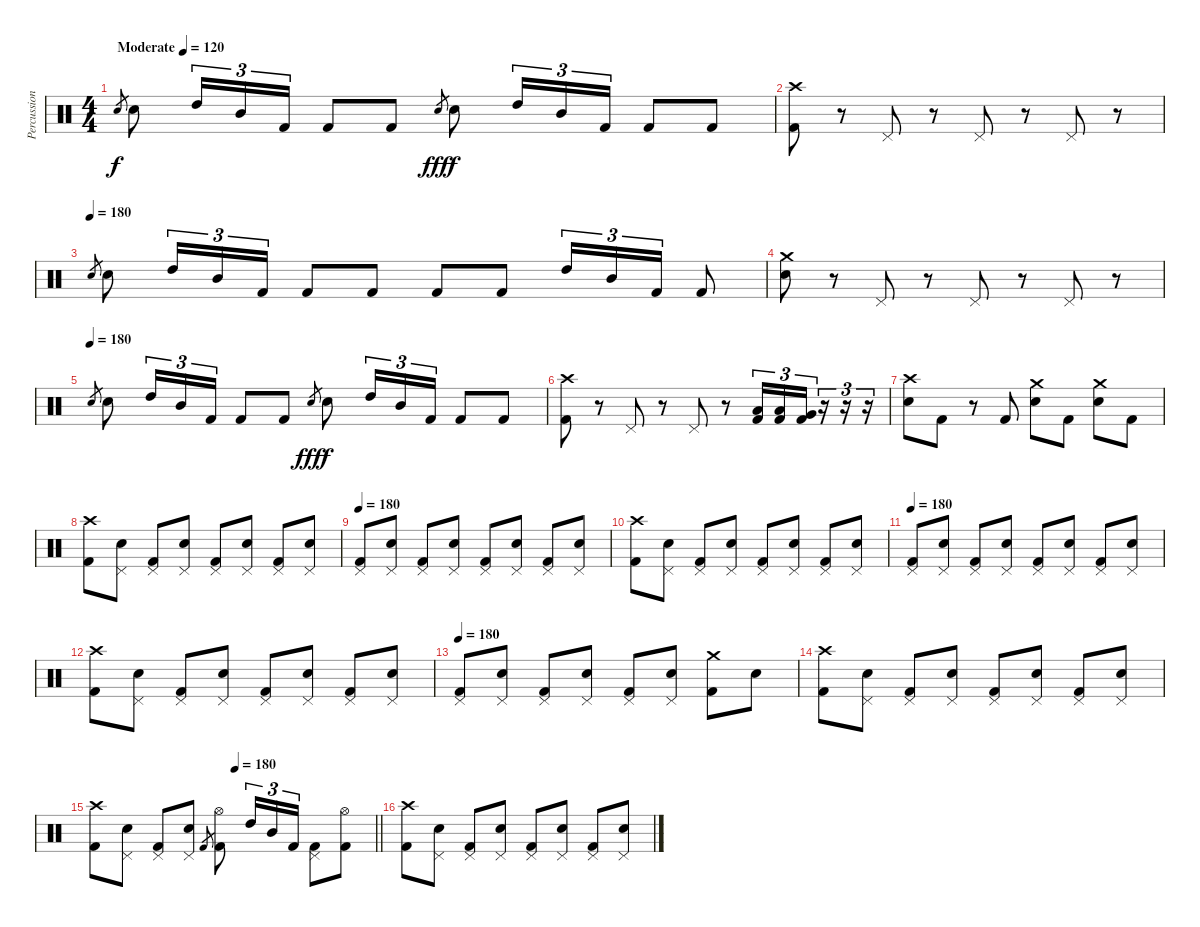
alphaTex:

\track ("Percussion" "Percussion") {instrument percussion}
\staff {score}
\articulation defaults
\ts (4 4)
\tempo (120 "Moderate")
\tempo 180
\tempo (120 "Moderate")
\clef neutral
\ks c "Snare (hit) 2".8{gr dy f} "Snare (hit) 2".8 "High Tom (hit)".16{tu (3 2)} "Mid Tom (hit)".16{tu (3 2)} "Kick (hit) 2".16{tu (3 2)} "Kick (hit) 2".8 "Kick (hit) 2".8 "Snare (hit) 2".8{gr dy fff} "Snare (hit) 2".8{dy f} "High Tom (hit)".16{tu (3 2)} "Mid Tom (hit)".16{tu (3 2)} "Kick (hit) 2".16{tu (3 2)} "Kick (hit) 2".8 "Kick (hit) 2".8
|
("Crash high (hit)" "Kick (hit) 2").8 r.8 "Pedal Hi-Hat (hit)".8 r.8 "Pedal Hi-Hat (hit)".8 r.8 "Pedal Hi-Hat (hit)".8 r.8 |
\tempo 120
\tempo (180)
"Snare (hit) 2".8{gr} "Snare (hit) 2".8 "High Tom (hit)".16{tu (3 2)} "Mid Tom (hit)".16{tu (3 2)} "Kick (hit) 2".16{tu (3 2)} "Kick (hit) 2".8 "Kick (hit) 2".8 "Kick (hit) 2".8 "Kick (hit) 2".8 "High Tom (hit)".16{tu (3 2)} "Mid Tom (hit)".16{tu (3 2)} "Kick (hit) 2".16{tu (3 2)} "Kick (hit) 2".8 |
("Crash medium (hit)" "Snare (hit) 2").8 r.8 "Pedal Hi-Hat (hit)".8 r.8 "Pedal Hi-Hat (hit)".8 r.8 "Pedal Hi-Hat (hit)".8 r.8 |
\tempo 120
\tempo (180)
"Snare (hit) 2".8{gr} "Snare (hit) 2".8 "High Tom (hit)".16{tu (3 2)} "Mid Tom (hit)".16{tu (3 2)} "Kick (hit) 2".16{tu (3 2)} "Kick (hit) 2".8 "Kick (hit) 2".8 "Snare (hit) 2".8{gr dy fff} "Snare (hit) 2".8{dy f} "High Tom (hit)".16{tu (3 2)} "Mid Tom (hit)".16{tu (3 2)} "Kick (hit) 2".16{tu (3 2)} "Kick (hit) 2".8 "Kick (hit) 2".8 |
("Crash high (hit)" "Kick (hit) 2").8 r.8 "Pedal Hi-Hat (hit)".8 r.8 "Pedal Hi-Hat (hit)".8 r.8 ("Low Tom (hit)" "Kick (hit) 2").16{tu (3 2)} ("Low Tom (hit)" "Kick (hit) 2").16{tu (3 2)} ("Very Low Tom (hit)" "Kick (hit) 2").16{tu (3 2)} r.16{tu (3 2)} r.16{tu (3 2)} r.16{tu (3 2)} |
("Crash high (hit)" "Snare (hit) 2").8 "Kick (hit) 2".8 r.8 "Kick (hit) 2".8 ("Crash medium (hit)" "Snare (hit) 2").8 "Kick (hit) 2".8 ("Crash medium (hit)" "Snare (hit) 2").8 "Kick (hit) 2".8 |
("Crash high (hit)" "Kick (hit) 2").8 ("Pedal Hi-Hat (hit)" "Snare (hit) 2").8 ("Pedal Hi-Hat (hit)" "Kick (hit) 2").8 ("Pedal Hi-Hat (hit)" "Snare (hit) 2").8 ("Pedal Hi-Hat (hit)" "Kick (hit) 2").8 ("Pedal Hi-Hat (hit)" "Snare (hit) 2").8 ("Pedal Hi-Hat (hit)" "Kick (hit) 2").8 ("Pedal Hi-Hat (hit)" "Snare (hit) 2").8 |
\tempo 180
("Pedal Hi-Hat (hit)" "Kick (hit) 2").8 ("Pedal Hi-Hat (hit)" "Snare (hit) 2").8 ("Pedal Hi-Hat (hit)" "Kick (hit) 2").8 ("Pedal Hi-Hat (hit)" "Snare (hit) 2").8 ("Pedal Hi-Hat (hit)" "Kick (hit) 2").8 ("Pedal Hi-Hat (hit)" "Snare (hit) 2").8 ("Pedal Hi-Hat (hit)" "Kick (hit) 2").8 ("Pedal Hi-Hat (hit)" "Snare (hit) 2").8 |
("Crash high (hit)" "Kick (hit) 2").8 ("Pedal Hi-Hat (hit)" "Snare (hit) 2").8 ("Pedal Hi-Hat (hit)" "Kick (hit) 2").8 ("Pedal Hi-Hat (hit)" "Snare (hit) 2").8 ("Pedal Hi-Hat (hit)" "Kick (hit) 2").8 ("Pedal Hi-Hat (hit)" "Snare (hit) 2").8 ("Pedal Hi-Hat (hit)" "Kick (hit) 2").8 ("Pedal Hi-Hat (hit)" "Snare (hit) 2").8 |
\tempo 180
("Pedal Hi-Hat (hit)" "Kick (hit) 2").8 ("Pedal Hi-Hat (hit)" "Snare (hit) 2").8 ("Pedal Hi-Hat (hit)" "Kick (hit) 2").8 ("Pedal Hi-Hat (hit)" "Snare (hit) 2").8 ("Pedal Hi-Hat (hit)" "Kick (hit) 2").8 ("Pedal Hi-Hat (hit)" "Snare (hit) 2").8 ("Pedal Hi-Hat (hit)" "Kick (hit) 2").8 ("Pedal Hi-Hat (hit)" "Snare (hit) 2").8 |
("Crash high (hit)" "Kick (hit) 2").8 ("Pedal Hi-Hat (hit)" "Snare (hit) 2").8 ("Pedal Hi-Hat (hit)" "Kick (hit) 2").8 ("Pedal Hi-Hat (hit)" "Snare (hit) 2").8 ("Pedal Hi-Hat (hit)" "Kick (hit) 2").8 ("Pedal Hi-Hat (hit)" "Snare (hit) 2").8 ("Pedal Hi-Hat (hit)" "Kick (hit) 2").8 ("Pedal Hi-Hat (hit)" "Snare (hit) 2").8 |
\tempo 180
("Pedal Hi-Hat (hit)" "Kick (hit) 2").8 ("Pedal Hi-Hat (hit)" "Snare (hit) 2").8 ("Pedal Hi-Hat (hit)" "Kick (hit) 2").8 ("Pedal Hi-Hat (hit)" "Snare (hit) 2").8 ("Pedal Hi-Hat (hit)" "Kick (hit) 2").8 ("Pedal Hi-Hat (hit)" "Snare (hit) 2").8 ("Crash medium (hit)" "Kick (hit) 2").8 "Snare (hit) 2".8 |
("Crash high (hit)" "Kick (hit) 2").8 ("Pedal Hi-Hat (hit)" "Snare (hit) 2").8 ("Pedal Hi-Hat (hit)" "Kick (hit) 2").8 ("Pedal Hi-Hat (hit)" "Snare (hit) 2").8 ("Pedal Hi-Hat (hit)" "Kick (hit) 2").8 ("Pedal Hi-Hat (hit)" "Snare (hit) 2").8 ("Pedal Hi-Hat (hit)" "Kick (hit) 2").8 ("Pedal Hi-Hat (hit)" "Snare (hit) 2").8 |
\tempo (180 0.5)
\barLineRight lightlight
("Crash high (hit)" "Kick (hit) 2").8 ("Pedal Hi-Hat (hit)" "Snare (hit) 2").8 ("Pedal Hi-Hat (hit)" "Kick (hit) 2").8 ("Pedal Hi-Hat (hit)" "Snare (hit) 2").8 "Kick (hit) 2".8{gr} ("Kick (hit) 2" "Hi-Hat (open)").8 "High Tom (hit)".16{tu (3 2)} "Mid Tom (hit)".16{tu (3 2)} "Kick (hit) 2".16{tu (3 2)} ("Kick (hit) 2" "Pedal Hi-Hat (hit)").8 ("Hi-Hat (open)" "Kick (hit) 2").8 |
\section ("" "")
("Crash high (hit)" "Kick (hit) 2").8 ("Pedal Hi-Hat (hit)" "Snare (hit) 2").8 ("Pedal Hi-Hat (hit)" "Kick (hit) 2").8 ("Pedal Hi-Hat (hit)" "Snare (hit) 2").8 ("Pedal Hi-Hat (hit)" "Kick (hit) 2").8 ("Pedal Hi-Hat (hit)" "Snare (hit) 2").8 ("Pedal Hi-Hat (hit)" "Kick (hit) 2").8 ("Pedal Hi-Hat (hit)" "Snare (hit) 2").8
